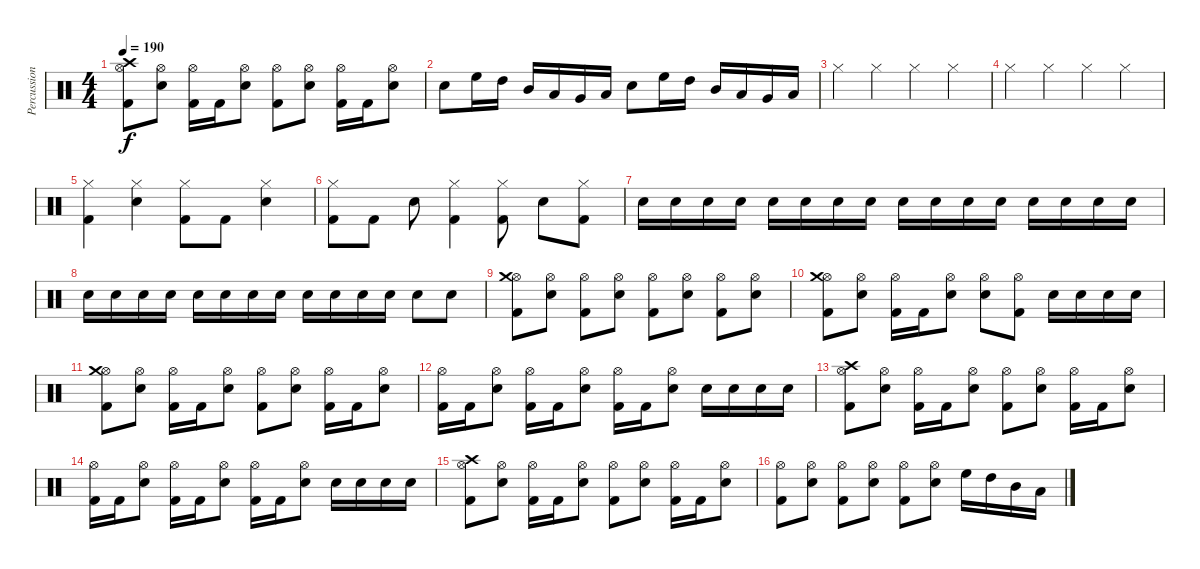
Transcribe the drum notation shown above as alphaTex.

\track ("Percussion" "Percussion") {instrument percussion}
\staff {score}
\articulation defaults
\ts (4 4)
\tempo 190
\clef neutral
\ks c
("Hi-Hat (open)" "Crash high (hit)" "Kick (hit) 2").8{dy f} ("Hi-Hat (open)" "Snare (hit) 2").8 ("Hi-Hat (open)" "Kick (hit) 2").16 "Kick (hit) 2".16 ("Hi-Hat (open)" "Snare (hit) 2").8 ("Hi-Hat (open)" "Kick (hit) 2").8 ("Hi-Hat (open)" "Snare (hit) 2").8 ("Hi-Hat (open)" "Kick (hit) 2").16 "Kick (hit) 2".16 ("Hi-Hat (open)" "Snare (hit) 2").8 |
"Snare (hit) 2".8 "High Floor Tom (hit)".16 "High Tom (hit)".16 "Mid Tom (hit)".16 "Low Tom (hit)".16 "Very Low Tom (hit)".16 "Low Floor Tom (hit)".16 "Snare (hit) 2".8 "High Floor Tom (hit)".16 "High Tom (hit)".16 "Mid Tom (hit)".16 "Low Tom (hit)".16 "Very Low Tom (hit)".16 "Low Floor Tom (hit)".16 |
"Hi-Hat (closed)".4 "Hi-Hat (closed)".4 "Hi-Hat (closed)".4 "Hi-Hat (closed)".4 |
"Hi-Hat (closed)".4 "Hi-Hat (closed)".4 "Hi-Hat (closed)".4 "Hi-Hat (closed)".4 |
("Hi-Hat (closed)" "Kick (hit) 2").4 ("Hi-Hat (closed)" "Snare (hit) 2").4 ("Hi-Hat (closed)" "Kick (hit) 2").8 "Kick (hit) 2".8 ("Hi-Hat (closed)" "Snare (hit) 2").4 |
("Hi-Hat (closed)" "Kick (hit) 2").8 "Kick (hit) 2".8 "Snare (hit) 2".8 ("Hi-Hat (closed)" "Kick (hit) 2").4 ("Hi-Hat (closed)" "Kick (hit) 2").8 "Snare (hit) 2".8 ("Hi-Hat (closed)" "Kick (hit) 2").8 |
"Snare (hit) 2".16 "Snare (hit) 2".16 "Snare (hit) 2".16 "Snare (hit) 2".16 "Snare (hit) 2".16 "Snare (hit) 2".16 "Snare (hit) 2".16 "Snare (hit) 2".16 "Snare (hit) 2".16 "Snare (hit) 2".16 "Snare (hit) 2".16 "Snare (hit) 2".16 "Snare (hit) 2".16 "Snare (hit) 2".16 "Snare (hit) 2".16 "Snare (hit) 2".16 |
"Snare (hit) 2".16 "Snare (hit) 2".16 "Snare (hit) 2".16 "Snare (hit) 2".16 "Snare (hit) 2".16 "Snare (hit) 2".16 "Snare (hit) 2".16 "Snare (hit) 2".16 "Snare (hit) 2".16 "Snare (hit) 2".16 "Snare (hit) 2".16 "Snare (hit) 2".16 "Snare (hit) 2".8 "Snare (hit) 2".8 |
("Hi-Hat (open)" "Crash medium (hit)" "Kick (hit) 2").8 ("Hi-Hat (open)" "Snare (hit) 2").8 ("Hi-Hat (open)" "Kick (hit) 2").8 ("Hi-Hat (open)" "Snare (hit) 2").8 ("Hi-Hat (open)" "Kick (hit) 2").8 ("Hi-Hat (open)" "Snare (hit) 2").8 ("Hi-Hat (open)" "Kick (hit) 2").8 ("Hi-Hat (open)" "Snare (hit) 2").8 |
("Hi-Hat (open)" "Crash medium (hit)" "Kick (hit) 2").8 ("Hi-Hat (open)" "Snare (hit) 2").8 ("Hi-Hat (open)" "Kick (hit) 2").16 "Kick (hit) 2".16 ("Hi-Hat (open)" "Snare (hit) 2").8 ("Hi-Hat (open)" "Snare (hit) 2").8 ("Hi-Hat (open)" "Kick (hit) 2").8 "Snare (hit) 2".16 "Snare (hit) 2".16 "Snare (hit) 2".16 "Snare (hit) 2".16 |
("Hi-Hat (open)" "Crash medium (hit)" "Kick (hit) 2").8 ("Hi-Hat (open)" "Snare (hit) 2").8 ("Hi-Hat (open)" "Kick (hit) 2").16 "Kick (hit) 2".16 ("Hi-Hat (open)" "Snare (hit) 2").8 ("Hi-Hat (open)" "Kick (hit) 2").8 ("Hi-Hat (open)" "Snare (hit) 2").8 ("Hi-Hat (open)" "Kick (hit) 2").16 "Kick (hit) 2".16 ("Hi-Hat (open)" "Snare (hit) 2").8 |
("Hi-Hat (open)" "Kick (hit) 2").16 "Kick (hit) 2".16 ("Hi-Hat (open)" "Snare (hit) 2").8 ("Hi-Hat (open)" "Kick (hit) 2").16 "Kick (hit) 2".16 ("Hi-Hat (open)" "Snare (hit) 2").8 ("Hi-Hat (open)" "Kick (hit) 2").16 "Kick (hit) 2".16 ("Hi-Hat (open)" "Snare (hit) 2").8 "Snare (hit) 2".16 "Snare (hit) 2".16 "Snare (hit) 2".16 "Snare (hit) 2".16 |
("Hi-Hat (open)" "Crash high (hit)" "Kick (hit) 2").8 ("Hi-Hat (open)" "Snare (hit) 2").8 ("Hi-Hat (open)" "Kick (hit) 2").16 "Kick (hit) 2".16 ("Hi-Hat (open)" "Snare (hit) 2").8 ("Hi-Hat (open)" "Kick (hit) 2").8 ("Hi-Hat (open)" "Snare (hit) 2").8 ("Hi-Hat (open)" "Kick (hit) 2").16 "Kick (hit) 2".16 ("Hi-Hat (open)" "Snare (hit) 2").8 |
("Hi-Hat (open)" "Kick (hit) 2").16 "Kick (hit) 2".16 ("Hi-Hat (open)" "Snare (hit) 2").8 ("Hi-Hat (open)" "Kick (hit) 2").16 "Kick (hit) 2".16 ("Hi-Hat (open)" "Snare (hit) 2").8 ("Hi-Hat (open)" "Kick (hit) 2").16 "Kick (hit) 2".16 ("Hi-Hat (open)" "Snare (hit) 2").8 "Snare (hit) 2".16 "Snare (hit) 2".16 "Snare (hit) 2".16 "Snare (hit) 2".16 |
("Hi-Hat (open)" "Crash high (hit)" "Kick (hit) 2").8 ("Hi-Hat (open)" "Snare (hit) 2").8 ("Hi-Hat (open)" "Kick (hit) 2").16 "Kick (hit) 2".16 ("Hi-Hat (open)" "Snare (hit) 2").8 ("Hi-Hat (open)" "Kick (hit) 2").8 ("Hi-Hat (open)" "Snare (hit) 2").8 ("Hi-Hat (open)" "Kick (hit) 2").16 "Kick (hit) 2".16 ("Hi-Hat (open)" "Snare (hit) 2").8 |
("Hi-Hat (open)" "Kick (hit) 2").8 ("Hi-Hat (open)" "Snare (hit) 2").8 ("Hi-Hat (open)" "Kick (hit) 2").8 ("Hi-Hat (open)" "Snare (hit) 2").8 ("Hi-Hat (open)" "Kick (hit) 2").8 ("Hi-Hat (open)" "Snare (hit) 2").8 "High Floor Tom (hit)".16 "High Tom (hit)".16 "Mid Tom (hit)".16 "Low Tom (hit)".16
